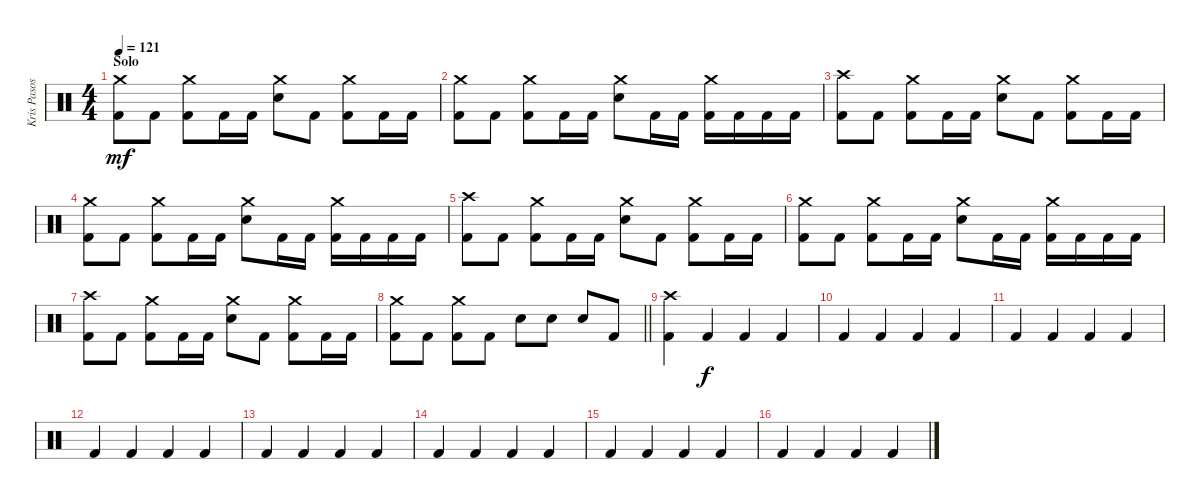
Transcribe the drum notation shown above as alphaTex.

\track ("Kris Pasos" "Kris Pasos") {instrument percussion}
\staff {score}
\articulation defaults
\ts (4 4)
\section ("" "Solo")
\tempo 121
\clef neutral
\ks c
("Crash medium (hit)" "Kick (hit) 2").8{dy mf} "Kick (hit) 2".8 ("Crash medium (hit)" "Kick (hit) 2").8 "Kick (hit) 2".16 "Kick (hit) 2".16 ("Crash medium (hit)" "Snare (hit) 2").8 "Kick (hit) 2".8 ("Crash medium (hit)" "Kick (hit) 2").8 "Kick (hit) 2".16 "Kick (hit) 2".16 |
("Crash medium (hit)" "Kick (hit) 2").8 "Kick (hit) 2".8 ("Crash medium (hit)" "Kick (hit) 2").8 "Kick (hit) 2".16 "Kick (hit) 2".16 ("Crash medium (hit)" "Snare (hit) 2").8 "Kick (hit) 2".16 "Kick (hit) 2".16 ("Crash medium (hit)" "Kick (hit) 2").16 "Kick (hit) 2".16 "Kick (hit) 2".16 "Kick (hit) 2".16 |
("Crash high (hit)" "Kick (hit) 2").8 "Kick (hit) 2".8 ("Crash medium (hit)" "Kick (hit) 2").8 "Kick (hit) 2".16 "Kick (hit) 2".16 ("Crash medium (hit)" "Snare (hit) 2").8 "Kick (hit) 2".8 ("Crash medium (hit)" "Kick (hit) 2").8 "Kick (hit) 2".16 "Kick (hit) 2".16 |
("Crash medium (hit)" "Kick (hit) 2").8 "Kick (hit) 2".8 ("Crash medium (hit)" "Kick (hit) 2").8 "Kick (hit) 2".16 "Kick (hit) 2".16 ("Crash medium (hit)" "Snare (hit) 2").8 "Kick (hit) 2".16 "Kick (hit) 2".16 ("Crash medium (hit)" "Kick (hit) 2").16 "Kick (hit) 2".16 "Kick (hit) 2".16 "Kick (hit) 2".16 |
("Crash high (hit)" "Kick (hit) 2").8 "Kick (hit) 2".8 ("Crash medium (hit)" "Kick (hit) 2").8 "Kick (hit) 2".16 "Kick (hit) 2".16 ("Crash medium (hit)" "Snare (hit) 2").8 "Kick (hit) 2".8 ("Crash medium (hit)" "Kick (hit) 2").8 "Kick (hit) 2".16 "Kick (hit) 2".16 |
("Crash medium (hit)" "Kick (hit) 2").8 "Kick (hit) 2".8 ("Crash medium (hit)" "Kick (hit) 2").8 "Kick (hit) 2".16 "Kick (hit) 2".16 ("Crash medium (hit)" "Snare (hit) 2").8 "Kick (hit) 2".16 "Kick (hit) 2".16 ("Crash medium (hit)" "Kick (hit) 2").16 "Kick (hit) 2".16 "Kick (hit) 2".16 "Kick (hit) 2".16 |
("Crash high (hit)" "Kick (hit) 2").8 "Kick (hit) 2".8 ("Crash medium (hit)" "Kick (hit) 2").8 "Kick (hit) 2".16 "Kick (hit) 2".16 ("Crash medium (hit)" "Snare (hit) 2").8 "Kick (hit) 2".8 ("Crash medium (hit)" "Kick (hit) 2").8 "Kick (hit) 2".16 "Kick (hit) 2".16 |
\barLineRight lightlight
("Crash medium (hit)" "Kick (hit) 2").8 "Kick (hit) 2".8 ("Crash medium (hit)" "Kick (hit) 2").8 "Kick (hit) 2".8 "Snare (hit) 2".8 "Snare (hit) 2".8 "Snare (hit) 2".8 "Kick (hit) 2".8 |
("Crash high (hit)" "Kick (hit) 2").4 "Kick (hit) 2".4{dy f} "Kick (hit) 2".4 "Kick (hit) 2".4 |
"Kick (hit) 2".4 "Kick (hit) 2".4 "Kick (hit) 2".4 "Kick (hit) 2".4 |
"Kick (hit) 2".4 "Kick (hit) 2".4 "Kick (hit) 2".4 "Kick (hit) 2".4 |
"Kick (hit) 2".4 "Kick (hit) 2".4 "Kick (hit) 2".4 "Kick (hit) 2".4 |
"Kick (hit) 2".4 "Kick (hit) 2".4 "Kick (hit) 2".4 "Kick (hit) 2".4 |
"Kick (hit) 2".4 "Kick (hit) 2".4 "Kick (hit) 2".4 "Kick (hit) 2".4 |
"Kick (hit) 2".4 "Kick (hit) 2".4 "Kick (hit) 2".4 "Kick (hit) 2".4 |
"Kick (hit) 2".4 "Kick (hit) 2".4 "Kick (hit) 2".4 "Kick (hit) 2".4
